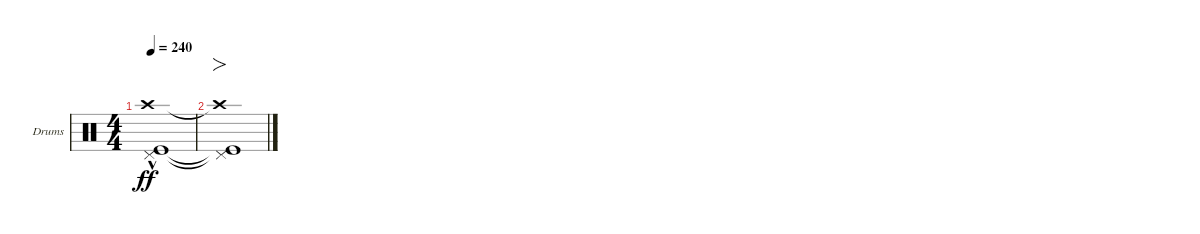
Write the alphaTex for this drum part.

\defaultSystemsLayout 4
\bracketExtendMode groupsimilarinstruments
\firstSystemTrackNameOrientation horizontal
\otherSystemsTrackNameOrientation horizontal
\track ("Drumkit" "Drums") {instrument percussion}
\staff {score}
\articulation defaults
\ts (4 4)
\tempo 240
\clef neutral
\ks c
("Kick (hit)"{hac} "Crash high (hit)"{hac} "Pedal Hi-Hat (hit)"{hac}).1{dy ff} |
("Kick (hit)"{t} "Crash high (hit)"{t} "Pedal Hi-Hat (hit)"{t}).1{fo}
